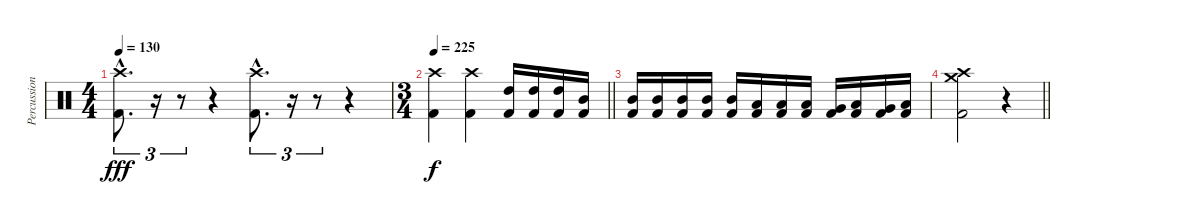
\track ("Percussion" "Percussion") {instrument percussion}
\staff {score}
\articulation defaults
\ts (4 4)
\tempo 130
\clef neutral
\ks c
("Crash high (hit)"{hac} "Kick (hit) 2"{hac}).8{d tu (3 2) dy fff} r.16{tu (3 2) volume 0} r.8{tu (3 2)} r.4 ("Crash high (hit)"{hac} "Kick (hit) 2"{hac}).8{d tu (3 2) volume 15} r.16{tu (3 2) volume 0} r.8{tu (3 2)} r.4 |
\ts (3 4)
\tempo 200
\tempo 225
\barLineRight lightlight
("Crash high (hit)" "Kick (hit) 2").4{dy f volume 15} ("Crash high (hit)" "Kick (hit) 2").4 ("High Tom (hit)" "Kick (hit) 2").16 ("High Tom (hit)" "Kick (hit) 2").16 ("High Tom (hit)" "Kick (hit) 2").16 ("Mid Tom (hit)" "Kick (hit) 2").16 |
("Mid Tom (hit)" "Kick (hit) 2").16 ("Mid Tom (hit)" "Kick (hit) 2").16 ("Mid Tom (hit)" "Kick (hit) 2").16 ("Mid Tom (hit)" "Kick (hit) 2").16 ("Mid Tom (hit)" "Kick (hit) 2").16 ("Low Tom (hit)" "Kick (hit) 2").16 ("Low Tom (hit)" "Kick (hit) 2").16 ("Low Tom (hit)" "Kick (hit) 2").16 ("Very Low Tom (hit)" "Kick (hit) 2").16 ("Low Tom (hit)" "Kick (hit) 2").16 ("Very Low Tom (hit)" "Kick (hit) 2").16 ("Low Tom (hit)" "Kick (hit) 2").16 |
\barLineRight lightlight
("Crash high (hit)" "Crash medium (hit)" "Kick (hit) 2").2 r.4
